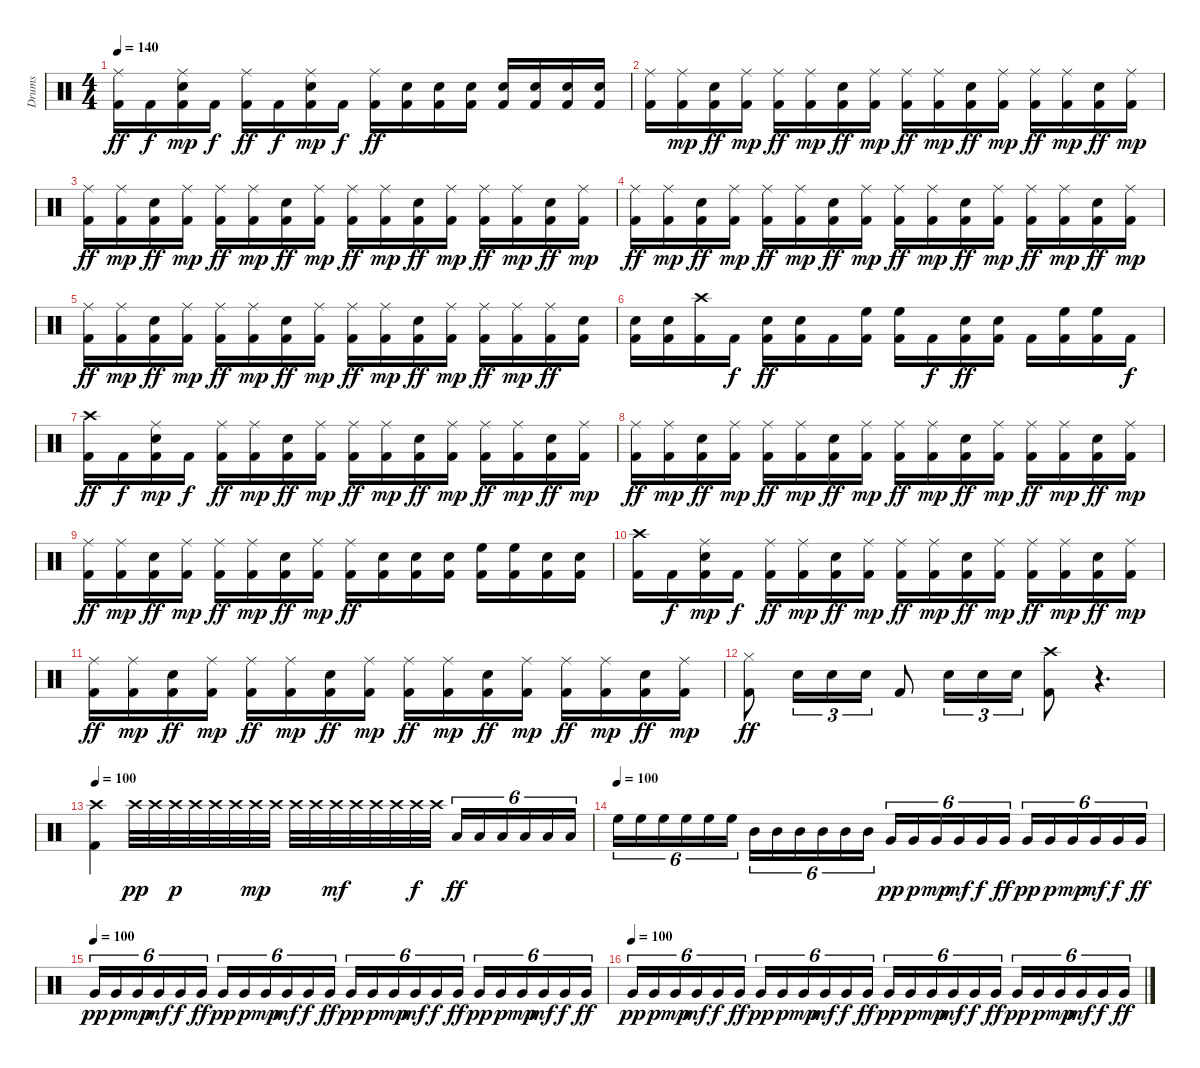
\track ("Drums" "Drums") {instrument percussion}
\staff {score}
\articulation defaults
\ts (4 4)
\tempo 140
\clef neutral
\ks c
("Ride (middle)" "Kick (hit) 2").16{dy ff} "Kick (hit) 2".16{dy f} ("Kick (hit) 2" "Snare (hit) 2" "Ride (middle)").16{dy mp} "Kick (hit) 2".16{dy f} ("Ride (middle)" "Kick (hit) 2").16{dy ff} "Kick (hit) 2".16{dy f} ("Kick (hit) 2" "Snare (hit) 2" "Ride (middle)").16{dy mp} "Kick (hit) 2".16{dy f} ("Ride (middle)" "Kick (hit) 2").16{dy ff} ("Snare (hit) 2" "Kick (hit) 2").16 ("Snare (hit) 2" "Kick (hit) 2").16 ("Snare (hit) 2" "Kick (hit) 2").16 ("Snare (hit) 2" "Kick (hit) 2").16 ("Snare (hit) 2" "Kick (hit) 2").16 ("Snare (hit) 2" "Kick (hit) 2").16 ("Snare (hit) 2" "Kick (hit) 2").16 |
("Ride (middle)" "Kick (hit) 2").16 ("Ride (middle)" "Kick (hit) 2").16{dy mp} ("Snare (hit) 2" "Kick (hit) 2").16{dy ff} ("Ride (middle)" "Kick (hit) 2").16{dy mp} ("Ride (middle)" "Kick (hit) 2").16{dy ff} ("Ride (middle)" "Kick (hit) 2").16{dy mp} ("Snare (hit) 2" "Kick (hit) 2").16{dy ff} ("Ride (middle)" "Kick (hit) 2").16{dy mp} ("Ride (middle)" "Kick (hit) 2").16{dy ff} ("Ride (middle)" "Kick (hit) 2").16{dy mp} ("Snare (hit) 2" "Kick (hit) 2").16{dy ff} ("Ride (middle)" "Kick (hit) 2").16{dy mp} ("Ride (middle)" "Kick (hit) 2").16{dy ff} ("Ride (middle)" "Kick (hit) 2").16{dy mp} ("Snare (hit) 2" "Kick (hit) 2").16{dy ff} ("Ride (middle)" "Kick (hit) 2").16{dy mp} |
("Ride (middle)" "Kick (hit) 2").16{dy ff} ("Ride (middle)" "Kick (hit) 2").16{dy mp} ("Snare (hit) 2" "Kick (hit) 2").16{dy ff} ("Ride (middle)" "Kick (hit) 2").16{dy mp} ("Ride (middle)" "Kick (hit) 2").16{dy ff} ("Ride (middle)" "Kick (hit) 2").16{dy mp} ("Snare (hit) 2" "Kick (hit) 2").16{dy ff} ("Ride (middle)" "Kick (hit) 2").16{dy mp} ("Ride (middle)" "Kick (hit) 2").16{dy ff} ("Ride (middle)" "Kick (hit) 2").16{dy mp} ("Snare (hit) 2" "Kick (hit) 2").16{dy ff} ("Ride (middle)" "Kick (hit) 2").16{dy mp} ("Ride (middle)" "Kick (hit) 2").16{dy ff} ("Ride (middle)" "Kick (hit) 2").16{dy mp} ("Snare (hit) 2" "Kick (hit) 2").16{dy ff} ("Ride (middle)" "Kick (hit) 2").16{dy mp} |
("Ride (middle)" "Kick (hit) 2").16{dy ff} ("Ride (middle)" "Kick (hit) 2").16{dy mp} ("Snare (hit) 2" "Kick (hit) 2").16{dy ff} ("Ride (middle)" "Kick (hit) 2").16{dy mp} ("Ride (middle)" "Kick (hit) 2").16{dy ff} ("Ride (middle)" "Kick (hit) 2").16{dy mp} ("Snare (hit) 2" "Kick (hit) 2").16{dy ff} ("Ride (middle)" "Kick (hit) 2").16{dy mp} ("Ride (middle)" "Kick (hit) 2").16{dy ff} ("Ride (middle)" "Kick (hit) 2").16{dy mp} ("Snare (hit) 2" "Kick (hit) 2").16{dy ff} ("Ride (middle)" "Kick (hit) 2").16{dy mp} ("Ride (middle)" "Kick (hit) 2").16{dy ff} ("Ride (middle)" "Kick (hit) 2").16{dy mp} ("Snare (hit) 2" "Kick (hit) 2").16{dy ff} ("Ride (middle)" "Kick (hit) 2").16{dy mp} |
("Ride (middle)" "Kick (hit) 2").16{dy ff} ("Ride (middle)" "Kick (hit) 2").16{dy mp} ("Snare (hit) 2" "Kick (hit) 2").16{dy ff} ("Ride (middle)" "Kick (hit) 2").16{dy mp} ("Ride (middle)" "Kick (hit) 2").16{dy ff} ("Ride (middle)" "Kick (hit) 2").16{dy mp} ("Snare (hit) 2" "Kick (hit) 2").16{dy ff} ("Ride (middle)" "Kick (hit) 2").16{dy mp} ("Ride (middle)" "Kick (hit) 2").16{dy ff} ("Ride (middle)" "Kick (hit) 2").16{dy mp} ("Snare (hit) 2" "Kick (hit) 2").16{dy ff} ("Ride (middle)" "Kick (hit) 2").16{dy mp} ("Ride (middle)" "Kick (hit) 2").16{dy ff} ("Ride (middle)" "Kick (hit) 2").16{dy mp} ("Ride (middle)" "Kick (hit) 2").16{dy ff} ("Snare (hit) 2" "Kick (hit) 2").16 |
("Snare (hit) 2" "Kick (hit) 2").16 ("Snare (hit) 2" "Kick (hit) 2").16 ("Crash high (hit)" "Kick (hit) 2").16 "Kick (hit) 2".16{dy f} ("Snare (hit) 2" "Kick (hit) 2").16{dy ff} ("Snare (hit) 2" "Kick (hit) 2").16 "Kick (hit) 2".16 ("High Floor Tom (hit)" "Kick (hit) 2").16 ("High Floor Tom (hit)" "Kick (hit) 2").16 "Kick (hit) 2".16{dy f} ("Snare (hit) 2" "Kick (hit) 2").16{dy ff} ("Snare (hit) 2" "Kick (hit) 2").16 "Kick (hit) 2".16 ("High Floor Tom (hit)" "Kick (hit) 2").16 ("High Floor Tom (hit)" "Kick (hit) 2").16 "Kick (hit) 2".16{dy f} |
("Crash high (hit)" "Kick (hit) 2").16{dy ff} "Kick (hit) 2".16{dy f} ("Kick (hit) 2" "Snare (hit) 2" "Ride (middle)").16{dy mp} "Kick (hit) 2".16{dy f} ("Ride (middle)" "Kick (hit) 2").16{dy ff} ("Ride (middle)" "Kick (hit) 2").16{dy mp} ("Snare (hit) 2" "Kick (hit) 2").16{dy ff} ("Ride (middle)" "Kick (hit) 2").16{dy mp} ("Ride (middle)" "Kick (hit) 2").16{dy ff} ("Ride (middle)" "Kick (hit) 2").16{dy mp} ("Snare (hit) 2" "Kick (hit) 2").16{dy ff} ("Ride (middle)" "Kick (hit) 2").16{dy mp} ("Ride (middle)" "Kick (hit) 2").16{dy ff} ("Ride (middle)" "Kick (hit) 2").16{dy mp} ("Snare (hit) 2" "Kick (hit) 2").16{dy ff} ("Ride (middle)" "Kick (hit) 2").16{dy mp} |
("Ride (middle)" "Kick (hit) 2").16{dy ff} ("Ride (middle)" "Kick (hit) 2").16{dy mp} ("Snare (hit) 2" "Kick (hit) 2").16{dy ff} ("Ride (middle)" "Kick (hit) 2").16{dy mp} ("Ride (middle)" "Kick (hit) 2").16{dy ff} ("Ride (middle)" "Kick (hit) 2").16{dy mp} ("Snare (hit) 2" "Kick (hit) 2").16{dy ff} ("Ride (middle)" "Kick (hit) 2").16{dy mp} ("Ride (middle)" "Kick (hit) 2").16{dy ff} ("Ride (middle)" "Kick (hit) 2").16{dy mp} ("Snare (hit) 2" "Kick (hit) 2").16{dy ff} ("Ride (middle)" "Kick (hit) 2").16{dy mp} ("Ride (middle)" "Kick (hit) 2").16{dy ff} ("Ride (middle)" "Kick (hit) 2").16{dy mp} ("Snare (hit) 2" "Kick (hit) 2").16{dy ff} ("Ride (middle)" "Kick (hit) 2").16{dy mp} |
("Ride (middle)" "Kick (hit) 2").16{dy ff} ("Ride (middle)" "Kick (hit) 2").16{dy mp} ("Snare (hit) 2" "Kick (hit) 2").16{dy ff} ("Ride (middle)" "Kick (hit) 2").16{dy mp} ("Ride (middle)" "Kick (hit) 2").16{dy ff} ("Ride (middle)" "Kick (hit) 2").16{dy mp} ("Snare (hit) 2" "Kick (hit) 2").16{dy ff} ("Ride (middle)" "Kick (hit) 2").16{dy mp} ("Ride (middle)" "Kick (hit) 2").16{dy ff} ("Snare (hit) 2" "Kick (hit) 2").16 ("Snare (hit) 2" "Kick (hit) 2").16 ("Snare (hit) 2" "Kick (hit) 2").16 ("High Floor Tom (hit)" "Kick (hit) 2").16 ("High Floor Tom (hit)" "Kick (hit) 2").16 ("Snare (hit) 2" "Kick (hit) 2").16 ("Snare (hit) 2" "Kick (hit) 2").16 |
("Crash high (hit)" "Kick (hit) 2").16 "Kick (hit) 2".16{dy f} ("Kick (hit) 2" "Snare (hit) 2" "Ride (middle)").16{dy mp} "Kick (hit) 2".16{dy f} ("Ride (middle)" "Kick (hit) 2").16{dy ff} ("Ride (middle)" "Kick (hit) 2").16{dy mp} ("Snare (hit) 2" "Kick (hit) 2").16{dy ff} ("Ride (middle)" "Kick (hit) 2").16{dy mp} ("Ride (middle)" "Kick (hit) 2").16{dy ff} ("Ride (middle)" "Kick (hit) 2").16{dy mp} ("Snare (hit) 2" "Kick (hit) 2").16{dy ff} ("Ride (middle)" "Kick (hit) 2").16{dy mp} ("Ride (middle)" "Kick (hit) 2").16{dy ff} ("Ride (middle)" "Kick (hit) 2").16{dy mp} ("Snare (hit) 2" "Kick (hit) 2").16{dy ff} ("Ride (middle)" "Kick (hit) 2").16{dy mp} |
("Ride (middle)" "Kick (hit) 2").16{dy ff} ("Ride (middle)" "Kick (hit) 2").16{dy mp} ("Snare (hit) 2" "Kick (hit) 2").16{dy ff} ("Ride (middle)" "Kick (hit) 2").16{dy mp} ("Ride (middle)" "Kick (hit) 2").16{dy ff} ("Ride (middle)" "Kick (hit) 2").16{dy mp} ("Snare (hit) 2" "Kick (hit) 2").16{dy ff} ("Ride (middle)" "Kick (hit) 2").16{dy mp} ("Ride (middle)" "Kick (hit) 2").16{dy ff} ("Ride (middle)" "Kick (hit) 2").16{dy mp} ("Snare (hit) 2" "Kick (hit) 2").16{dy ff} ("Ride (middle)" "Kick (hit) 2").16{dy mp} ("Ride (middle)" "Kick (hit) 2").16{dy ff} ("Ride (middle)" "Kick (hit) 2").16{dy mp} ("Snare (hit) 2" "Kick (hit) 2").16{dy ff} ("Ride (middle)" "Kick (hit) 2").16{dy mp} |
("Hi-Hat (closed)" "Kick (hit) 2").8{dy ff} "Snare (hit) 2".16{tu (3 2)} "Snare (hit) 2".16{tu (3 2)} "Snare (hit) 2".16{tu (3 2)} "Kick (hit) 2".8 "Snare (hit) 2".16{tu (3 2)} "Snare (hit) 2".16{tu (3 2)} "Snare (hit) 2".16{tu (3 2)} ("Crash high (hit)" "Kick (hit) 2").8 r.4{d} |
\tempo 100
("Crash high (hit)" "Kick (hit) 2").4 "Crash high (hit)".32{dy pp} "Crash high (hit)".32 "Crash high (hit)".32{dy p} "Crash high (hit)".32 "Crash high (hit)".32 "Crash high (hit)".32 "Crash high (hit)".32{dy mp} "Crash high (hit)".32 "Crash high (hit)".32 "Crash high (hit)".32 "Crash high (hit)".32{dy mf} "Crash high (hit)".32 "Crash high (hit)".32 "Crash high (hit)".32 "Crash high (hit)".32{dy f} "Crash high (hit)".32 "Low Floor Tom (hit)".16{tu (6 4) dy ff} "Low Floor Tom (hit)".16{tu (6 4)} "Low Floor Tom (hit)".16{tu (6 4)} "Low Floor Tom (hit)".16{tu (6 4)} "Low Floor Tom (hit)".16{tu (6 4)} "Low Floor Tom (hit)".16{tu (6 4)} |
\tempo (100)
"High Floor Tom (hit)".16{tu (6 4)} "High Floor Tom (hit)".16{tu (6 4)} "High Floor Tom (hit)".16{tu (6 4)} "High Floor Tom (hit)".16{tu (6 4)} "High Floor Tom (hit)".16{tu (6 4)} "High Floor Tom (hit)".16{tu (6 4)} "Mid Tom (hit)".16{tu (6 4)} "Mid Tom (hit)".16{tu (6 4)} "Mid Tom (hit)".16{tu (6 4)} "Mid Tom (hit)".16{tu (6 4)} "Mid Tom (hit)".16{tu (6 4)} "Mid Tom (hit)".16{tu (6 4)} "Very Low Tom (hit)".16{tu (6 4) dy pp} "Very Low Tom (hit)".16{tu (6 4) dy p} "Very Low Tom (hit)".16{tu (6 4) dy mp} "Very Low Tom (hit)".16{tu (6 4) dy mf} "Very Low Tom (hit)".16{tu (6 4) dy f} "Very Low Tom (hit)".16{tu (6 4) dy ff} "Very Low Tom (hit)".16{tu (6 4) dy pp} "Very Low Tom (hit)".16{tu (6 4) dy p} "Very Low Tom (hit)".16{tu (6 4) dy mp} "Very Low Tom (hit)".16{tu (6 4) dy mf} "Very Low Tom (hit)".16{tu (6 4) dy f} "Very Low Tom (hit)".16{tu (6 4) dy ff} |
\tempo (100)
"Very Low Tom (hit)".16{tu (6 4) dy pp} "Very Low Tom (hit)".16{tu (6 4) dy p} "Very Low Tom (hit)".16{tu (6 4) dy mp} "Very Low Tom (hit)".16{tu (6 4) dy mf} "Very Low Tom (hit)".16{tu (6 4) dy f} "Very Low Tom (hit)".16{tu (6 4) dy ff} "Very Low Tom (hit)".16{tu (6 4) dy pp} "Very Low Tom (hit)".16{tu (6 4) dy p} "Very Low Tom (hit)".16{tu (6 4) dy mp} "Very Low Tom (hit)".16{tu (6 4) dy mf} "Very Low Tom (hit)".16{tu (6 4) dy f} "Very Low Tom (hit)".16{tu (6 4) dy ff} "Very Low Tom (hit)".16{tu (6 4) dy pp} "Very Low Tom (hit)".16{tu (6 4) dy p} "Very Low Tom (hit)".16{tu (6 4) dy mp} "Very Low Tom (hit)".16{tu (6 4) dy mf} "Very Low Tom (hit)".16{tu (6 4) dy f} "Very Low Tom (hit)".16{tu (6 4) dy ff} "Very Low Tom (hit)".16{tu (6 4) dy pp} "Very Low Tom (hit)".16{tu (6 4) dy p} "Very Low Tom (hit)".16{tu (6 4) dy mp} "Very Low Tom (hit)".16{tu (6 4) dy mf} "Very Low Tom (hit)".16{tu (6 4) dy f} "Very Low Tom (hit)".16{tu (6 4) dy ff} |
\tempo (100)
"Very Low Tom (hit)".16{tu (6 4) dy pp} "Very Low Tom (hit)".16{tu (6 4) dy p} "Very Low Tom (hit)".16{tu (6 4) dy mp} "Very Low Tom (hit)".16{tu (6 4) dy mf} "Very Low Tom (hit)".16{tu (6 4) dy f} "Very Low Tom (hit)".16{tu (6 4) dy ff} "Very Low Tom (hit)".16{tu (6 4) dy pp} "Very Low Tom (hit)".16{tu (6 4) dy p} "Very Low Tom (hit)".16{tu (6 4) dy mp} "Very Low Tom (hit)".16{tu (6 4) dy mf} "Very Low Tom (hit)".16{tu (6 4) dy f} "Very Low Tom (hit)".16{tu (6 4) dy ff} "Very Low Tom (hit)".16{tu (6 4) dy pp} "Very Low Tom (hit)".16{tu (6 4) dy p} "Very Low Tom (hit)".16{tu (6 4) dy mp} "Very Low Tom (hit)".16{tu (6 4) dy mf} "Very Low Tom (hit)".16{tu (6 4) dy f} "Very Low Tom (hit)".16{tu (6 4) dy ff} "Very Low Tom (hit)".16{tu (6 4) dy pp} "Very Low Tom (hit)".16{tu (6 4) dy p} "Very Low Tom (hit)".16{tu (6 4) dy mp} "Very Low Tom (hit)".16{tu (6 4) dy mf} "Very Low Tom (hit)".16{tu (6 4) dy f} "Very Low Tom (hit)".16{tu (6 4) dy ff}
